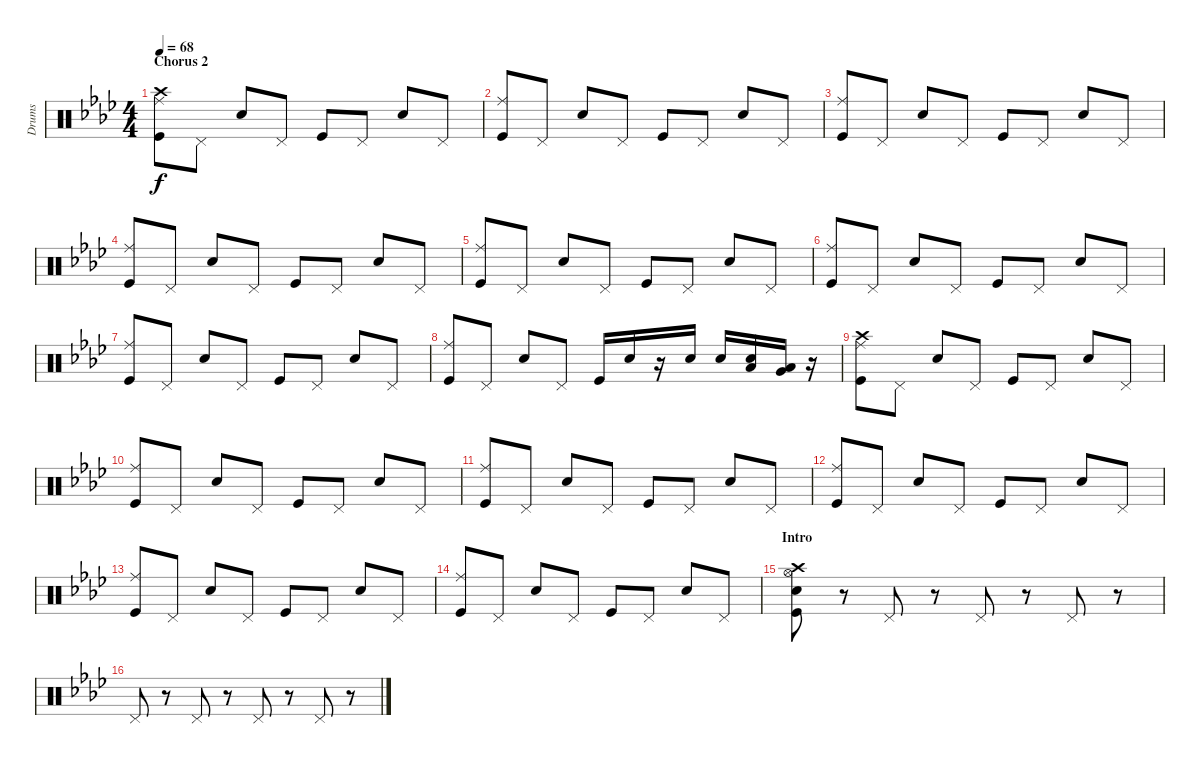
\track ("Drums" "Drums") {instrument percussion}
\staff {score}
\articulation defaults
\ts (4 4)
\section ("" "Chorus 2")
\tempo 68
\clef neutral
\ks ab
("Kick (hit)" "Ride (middle)" "Crash high (hit)").8{dy f} "Pedal Hi-Hat (hit)".8 "Snare (hit) 2".8 "Pedal Hi-Hat (hit)".8 "Kick (hit)".8 "Pedal Hi-Hat (hit)".8 "Snare (hit) 2".8 "Pedal Hi-Hat (hit)".8 |
("Kick (hit)" "Ride (middle)").8 "Pedal Hi-Hat (hit)".8 "Snare (hit) 2".8 "Pedal Hi-Hat (hit)".8 "Kick (hit)".8 "Pedal Hi-Hat (hit)".8 "Snare (hit) 2".8 "Pedal Hi-Hat (hit)".8 |
("Kick (hit)" "Ride (middle)").8 "Pedal Hi-Hat (hit)".8 "Snare (hit) 2".8 "Pedal Hi-Hat (hit)".8 "Kick (hit)".8 "Pedal Hi-Hat (hit)".8 "Snare (hit) 2".8 "Pedal Hi-Hat (hit)".8 |
("Kick (hit)" "Ride (middle)").8 "Pedal Hi-Hat (hit)".8 "Snare (hit) 2".8 "Pedal Hi-Hat (hit)".8 "Kick (hit)".8 "Pedal Hi-Hat (hit)".8 "Snare (hit) 2".8 "Pedal Hi-Hat (hit)".8 |
("Kick (hit)" "Ride (middle)").8 "Pedal Hi-Hat (hit)".8 "Snare (hit) 2".8 "Pedal Hi-Hat (hit)".8 "Kick (hit)".8 "Pedal Hi-Hat (hit)".8 "Snare (hit) 2".8 "Pedal Hi-Hat (hit)".8 |
("Kick (hit)" "Ride (middle)").8 "Pedal Hi-Hat (hit)".8 "Snare (hit) 2".8 "Pedal Hi-Hat (hit)".8 "Kick (hit)".8 "Pedal Hi-Hat (hit)".8 "Snare (hit) 2".8 "Pedal Hi-Hat (hit)".8 |
("Kick (hit)" "Ride (middle)").8 "Pedal Hi-Hat (hit)".8 "Snare (hit) 2".8 "Pedal Hi-Hat (hit)".8 "Kick (hit)".8 "Pedal Hi-Hat (hit)".8 "Snare (hit) 2".8 "Pedal Hi-Hat (hit)".8 |
("Kick (hit)" "Ride (middle)").8 "Pedal Hi-Hat (hit)".8 "Snare (hit) 2".8 "Pedal Hi-Hat (hit)".8 "Kick (hit)".16 "Snare (hit) 2".16 r.16 "Snare (hit) 2".16 "Snare (hit) 2".16 ("Low Tom (hit)" "Snare (hit) 2").16 ("Very Low Tom (hit)" "Low Tom (hit)").16 r.16 |
("Kick (hit)" "Ride (middle)" "Crash high (hit)").8 "Pedal Hi-Hat (hit)".8 "Snare (hit) 2".8 "Pedal Hi-Hat (hit)".8 "Kick (hit)".8 "Pedal Hi-Hat (hit)".8 "Snare (hit) 2".8 "Pedal Hi-Hat (hit)".8 |
("Kick (hit)" "Ride (middle)").8 "Pedal Hi-Hat (hit)".8 "Snare (hit) 2".8 "Pedal Hi-Hat (hit)".8 "Kick (hit)".8 "Pedal Hi-Hat (hit)".8 "Snare (hit) 2".8 "Pedal Hi-Hat (hit)".8 |
("Kick (hit)" "Ride (middle)").8 "Pedal Hi-Hat (hit)".8 "Snare (hit) 2".8 "Pedal Hi-Hat (hit)".8 "Kick (hit)".8 "Pedal Hi-Hat (hit)".8 "Snare (hit) 2".8 "Pedal Hi-Hat (hit)".8 |
("Kick (hit)" "Ride (middle)").8 "Pedal Hi-Hat (hit)".8 "Snare (hit) 2".8 "Pedal Hi-Hat (hit)".8 "Kick (hit)".8 "Pedal Hi-Hat (hit)".8 "Snare (hit) 2".8 "Pedal Hi-Hat (hit)".8 |
("Kick (hit)" "Ride (middle)").8 "Pedal Hi-Hat (hit)".8 "Snare (hit) 2".8 "Pedal Hi-Hat (hit)".8 "Kick (hit)".8 "Pedal Hi-Hat (hit)".8 "Snare (hit) 2".8 "Pedal Hi-Hat (hit)".8 |
("Kick (hit)" "Ride (middle)").8 "Pedal Hi-Hat (hit)".8 "Snare (hit) 2".8 "Pedal Hi-Hat (hit)".8 "Kick (hit)".8 "Pedal Hi-Hat (hit)".8 "Snare (hit) 2".8 "Pedal Hi-Hat (hit)".8 |
\section ("" "Intro")
("Kick (hit)" "Hi-Hat (open)" "Snare (hit) 2" "Crash high (hit)").8 r.8 "Pedal Hi-Hat (hit)".8 r.8 "Pedal Hi-Hat (hit)".8 r.8 "Pedal Hi-Hat (hit)".8 r.8 |
"Pedal Hi-Hat (hit)".8 r.8 "Pedal Hi-Hat (hit)".8 r.8 "Pedal Hi-Hat (hit)".8 r.8 "Pedal Hi-Hat (hit)".8 r.8
